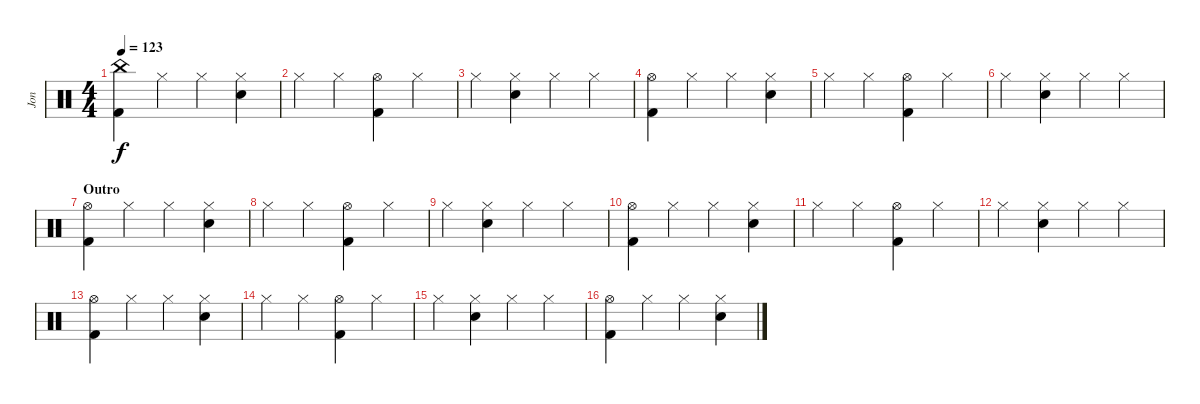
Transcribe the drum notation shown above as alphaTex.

\track ("Jon" "Jon") {instrument percussion}
\staff {score}
\articulation defaults
\ts (4 4)
\tempo 123
\clef neutral
\ks c
("China (hit)" "Kick (hit) 2").4{dy f} "Hi-Hat (closed)".4 "Hi-Hat (closed)".4 ("Hi-Hat (closed)" "Snare (hit) 2").4 |
"Hi-Hat (closed)".4 "Hi-Hat (closed)".4 ("Hi-Hat (open)" "Kick (hit) 2").4 "Hi-Hat (closed)".4 |
"Hi-Hat (closed)".4 ("Hi-Hat (closed)" "Snare (hit) 2").4 "Hi-Hat (closed)".4 "Hi-Hat (closed)".4 |
("Hi-Hat (open)" "Kick (hit) 2").4 "Hi-Hat (closed)".4 "Hi-Hat (closed)".4 ("Hi-Hat (closed)" "Snare (hit) 2").4 |
"Hi-Hat (closed)".4 "Hi-Hat (closed)".4 ("Hi-Hat (open)" "Kick (hit) 2").4 "Hi-Hat (closed)".4 |
"Hi-Hat (closed)".4 ("Hi-Hat (closed)" "Snare (hit) 2").4 "Hi-Hat (closed)".4 "Hi-Hat (closed)".4 |
\section ("" "Outro")
("Hi-Hat (open)" "Kick (hit) 2").4 "Hi-Hat (closed)".4 "Hi-Hat (closed)".4 ("Hi-Hat (closed)" "Snare (hit) 2").4 |
"Hi-Hat (closed)".4 "Hi-Hat (closed)".4 ("Hi-Hat (open)" "Kick (hit) 2").4 "Hi-Hat (closed)".4 |
"Hi-Hat (closed)".4 ("Hi-Hat (closed)" "Snare (hit) 2").4 "Hi-Hat (closed)".4 "Hi-Hat (closed)".4 |
("Hi-Hat (open)" "Kick (hit) 2").4 "Hi-Hat (closed)".4 "Hi-Hat (closed)".4 ("Hi-Hat (closed)" "Snare (hit) 2").4 |
"Hi-Hat (closed)".4 "Hi-Hat (closed)".4 ("Hi-Hat (open)" "Kick (hit) 2").4 "Hi-Hat (closed)".4 |
"Hi-Hat (closed)".4 ("Hi-Hat (closed)" "Snare (hit) 2").4 "Hi-Hat (closed)".4 "Hi-Hat (closed)".4 |
("Hi-Hat (open)" "Kick (hit) 2").4 "Hi-Hat (closed)".4 "Hi-Hat (closed)".4 ("Hi-Hat (closed)" "Snare (hit) 2").4 |
"Hi-Hat (closed)".4 "Hi-Hat (closed)".4 ("Hi-Hat (open)" "Kick (hit) 2").4 "Hi-Hat (closed)".4 |
"Hi-Hat (closed)".4 ("Hi-Hat (closed)" "Snare (hit) 2").4 "Hi-Hat (closed)".4 "Hi-Hat (closed)".4 |
("Hi-Hat (open)" "Kick (hit) 2").4 "Hi-Hat (closed)".4 "Hi-Hat (closed)".4 ("Hi-Hat (closed)" "Snare (hit) 2").4
